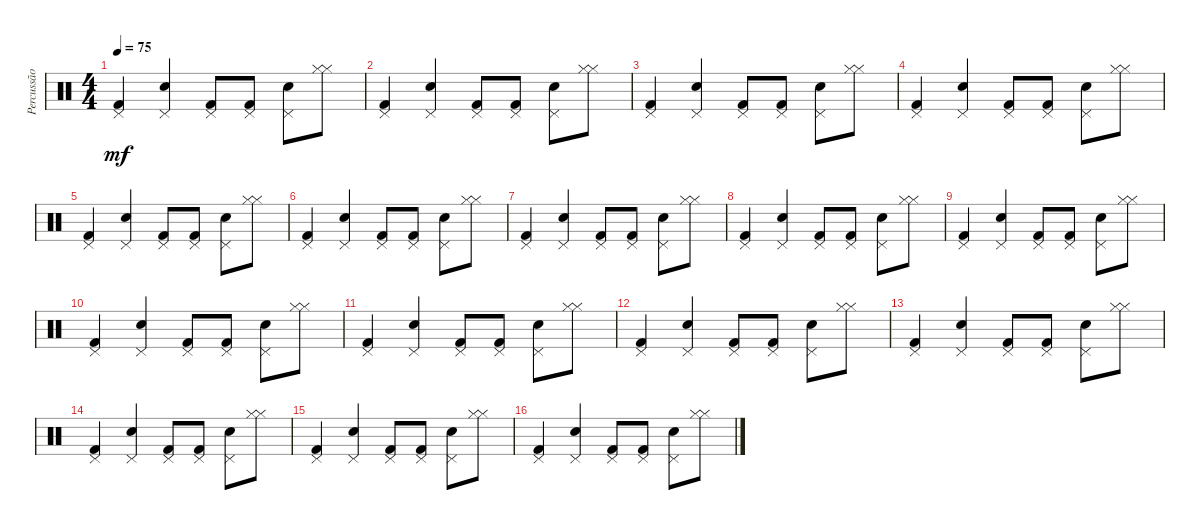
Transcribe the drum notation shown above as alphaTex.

\track ("Percussão" "Percussão") {instrument percussion}
\staff {score}
\articulation defaults
\ts (4 4)
\tempo 75
\clef neutral
\ks c
("Pedal Hi-Hat (hit)" "Kick (hit) 2").4{dy mf} ("Pedal Hi-Hat (hit)" "Electric Snare (hit)").4 ("Pedal Hi-Hat (hit)" "Kick (hit) 2").8 ("Pedal Hi-Hat (hit)" "Kick (hit) 2").8 ("Pedal Hi-Hat (hit)" "Electric Snare (hit)").8 ("Hi-Hat (closed)" "Hi-Hat (closed)").8 |
("Pedal Hi-Hat (hit)" "Kick (hit) 2").4 ("Pedal Hi-Hat (hit)" "Electric Snare (hit)").4 ("Pedal Hi-Hat (hit)" "Kick (hit) 2").8 ("Pedal Hi-Hat (hit)" "Kick (hit) 2").8 ("Pedal Hi-Hat (hit)" "Electric Snare (hit)").8 ("Hi-Hat (closed)" "Hi-Hat (closed)").8 |
("Pedal Hi-Hat (hit)" "Kick (hit) 2").4 ("Pedal Hi-Hat (hit)" "Electric Snare (hit)").4 ("Pedal Hi-Hat (hit)" "Kick (hit) 2").8 ("Pedal Hi-Hat (hit)" "Kick (hit) 2").8 ("Pedal Hi-Hat (hit)" "Electric Snare (hit)").8 ("Hi-Hat (closed)" "Hi-Hat (closed)").8 |
("Pedal Hi-Hat (hit)" "Kick (hit) 2").4 ("Pedal Hi-Hat (hit)" "Electric Snare (hit)").4 ("Pedal Hi-Hat (hit)" "Kick (hit) 2").8 ("Pedal Hi-Hat (hit)" "Kick (hit) 2").8 ("Pedal Hi-Hat (hit)" "Electric Snare (hit)").8 ("Hi-Hat (closed)" "Hi-Hat (closed)").8 |
("Pedal Hi-Hat (hit)" "Kick (hit) 2").4 ("Pedal Hi-Hat (hit)" "Electric Snare (hit)").4 ("Pedal Hi-Hat (hit)" "Kick (hit) 2").8 ("Pedal Hi-Hat (hit)" "Kick (hit) 2").8 ("Pedal Hi-Hat (hit)" "Electric Snare (hit)").8 ("Hi-Hat (closed)" "Hi-Hat (closed)").8 |
("Pedal Hi-Hat (hit)" "Kick (hit) 2").4 ("Pedal Hi-Hat (hit)" "Electric Snare (hit)").4 ("Pedal Hi-Hat (hit)" "Kick (hit) 2").8 ("Pedal Hi-Hat (hit)" "Kick (hit) 2").8 ("Pedal Hi-Hat (hit)" "Electric Snare (hit)").8 ("Hi-Hat (closed)" "Hi-Hat (closed)").8 |
("Pedal Hi-Hat (hit)" "Kick (hit) 2").4 ("Pedal Hi-Hat (hit)" "Electric Snare (hit)").4 ("Pedal Hi-Hat (hit)" "Kick (hit) 2").8 ("Pedal Hi-Hat (hit)" "Kick (hit) 2").8 ("Pedal Hi-Hat (hit)" "Electric Snare (hit)").8 ("Hi-Hat (closed)" "Hi-Hat (closed)").8 |
("Pedal Hi-Hat (hit)" "Kick (hit) 2").4 ("Pedal Hi-Hat (hit)" "Electric Snare (hit)").4 ("Pedal Hi-Hat (hit)" "Kick (hit) 2").8 ("Pedal Hi-Hat (hit)" "Kick (hit) 2").8 ("Pedal Hi-Hat (hit)" "Electric Snare (hit)").8 ("Hi-Hat (closed)" "Hi-Hat (closed)").8 |
("Pedal Hi-Hat (hit)" "Kick (hit) 2").4 ("Pedal Hi-Hat (hit)" "Electric Snare (hit)").4 ("Pedal Hi-Hat (hit)" "Kick (hit) 2").8 ("Pedal Hi-Hat (hit)" "Kick (hit) 2").8 ("Pedal Hi-Hat (hit)" "Electric Snare (hit)").8 ("Hi-Hat (closed)" "Hi-Hat (closed)").8 |
("Pedal Hi-Hat (hit)" "Kick (hit) 2").4 ("Pedal Hi-Hat (hit)" "Electric Snare (hit)").4 ("Pedal Hi-Hat (hit)" "Kick (hit) 2").8 ("Pedal Hi-Hat (hit)" "Kick (hit) 2").8 ("Pedal Hi-Hat (hit)" "Electric Snare (hit)").8 ("Hi-Hat (closed)" "Hi-Hat (closed)").8 |
("Pedal Hi-Hat (hit)" "Kick (hit) 2").4 ("Pedal Hi-Hat (hit)" "Electric Snare (hit)").4 ("Pedal Hi-Hat (hit)" "Kick (hit) 2").8 ("Pedal Hi-Hat (hit)" "Kick (hit) 2").8 ("Pedal Hi-Hat (hit)" "Electric Snare (hit)").8 ("Hi-Hat (closed)" "Hi-Hat (closed)").8 |
("Pedal Hi-Hat (hit)" "Kick (hit) 2").4 ("Pedal Hi-Hat (hit)" "Electric Snare (hit)").4 ("Pedal Hi-Hat (hit)" "Kick (hit) 2").8 ("Pedal Hi-Hat (hit)" "Kick (hit) 2").8 ("Pedal Hi-Hat (hit)" "Electric Snare (hit)").8 ("Hi-Hat (closed)" "Hi-Hat (closed)").8 |
("Pedal Hi-Hat (hit)" "Kick (hit) 2").4 ("Pedal Hi-Hat (hit)" "Electric Snare (hit)").4 ("Pedal Hi-Hat (hit)" "Kick (hit) 2").8 ("Pedal Hi-Hat (hit)" "Kick (hit) 2").8 ("Pedal Hi-Hat (hit)" "Electric Snare (hit)").8 ("Hi-Hat (closed)" "Hi-Hat (closed)").8 |
("Pedal Hi-Hat (hit)" "Kick (hit) 2").4 ("Pedal Hi-Hat (hit)" "Electric Snare (hit)").4 ("Pedal Hi-Hat (hit)" "Kick (hit) 2").8 ("Pedal Hi-Hat (hit)" "Kick (hit) 2").8 ("Pedal Hi-Hat (hit)" "Electric Snare (hit)").8 ("Hi-Hat (closed)" "Hi-Hat (closed)").8 |
("Pedal Hi-Hat (hit)" "Kick (hit) 2").4 ("Pedal Hi-Hat (hit)" "Electric Snare (hit)").4 ("Pedal Hi-Hat (hit)" "Kick (hit) 2").8 ("Pedal Hi-Hat (hit)" "Kick (hit) 2").8 ("Pedal Hi-Hat (hit)" "Electric Snare (hit)").8 ("Hi-Hat (closed)" "Hi-Hat (closed)").8 |
("Pedal Hi-Hat (hit)" "Kick (hit) 2").4 ("Pedal Hi-Hat (hit)" "Electric Snare (hit)").4 ("Pedal Hi-Hat (hit)" "Kick (hit) 2").8 ("Pedal Hi-Hat (hit)" "Kick (hit) 2").8 ("Pedal Hi-Hat (hit)" "Electric Snare (hit)").8 ("Hi-Hat (closed)" "Hi-Hat (closed)").8
